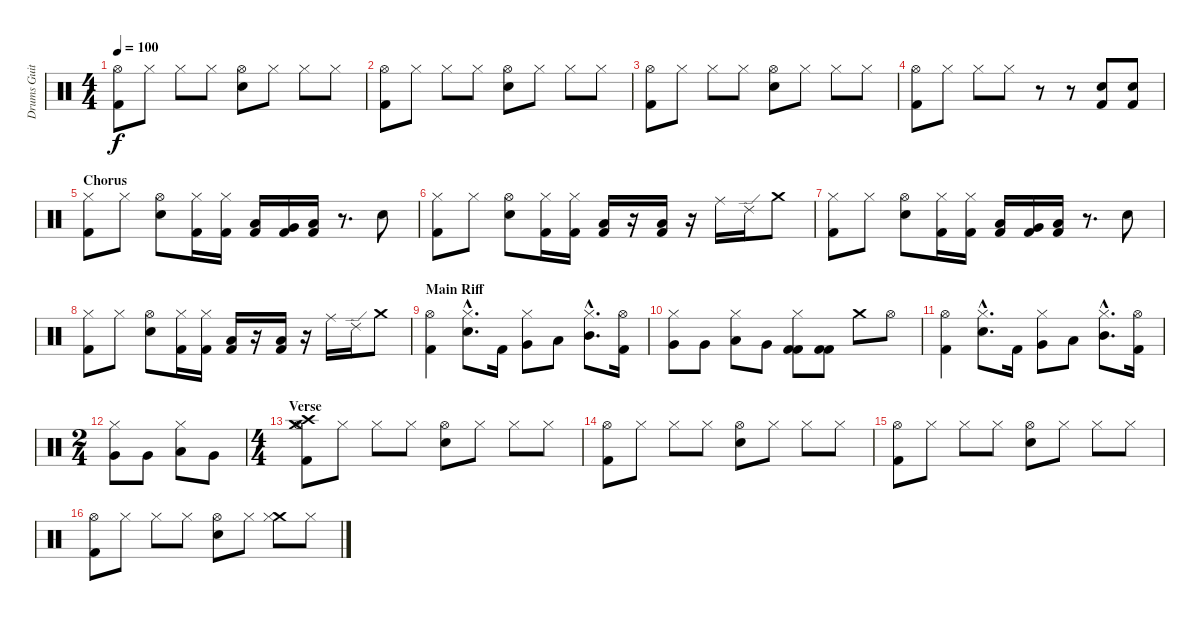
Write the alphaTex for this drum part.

\track ("Drums Guitar" "Drums Guit") {instrument percussion}
\staff {score}
\articulation defaults
\ts (4 4)
\tempo 100
\clef neutral
\ks c
("Hi-Hat (open)" "Kick (hit) 2").8{dy f} "Hi-Hat (closed)".8 "Hi-Hat (closed)".8 "Hi-Hat (closed)".8 ("Hi-Hat (open)" "Snare (hit) 2").8 "Hi-Hat (closed)".8 "Hi-Hat (closed)".8 "Hi-Hat (closed)".8 |
("Hi-Hat (open)" "Kick (hit) 2").8 "Hi-Hat (closed)".8 "Hi-Hat (closed)".8 "Hi-Hat (closed)".8 ("Hi-Hat (open)" "Snare (hit) 2").8 "Hi-Hat (closed)".8 "Hi-Hat (closed)".8 "Hi-Hat (closed)".8 |
("Hi-Hat (open)" "Kick (hit) 2").8 "Hi-Hat (closed)".8 "Hi-Hat (closed)".8 "Hi-Hat (closed)".8 ("Hi-Hat (open)" "Snare (hit) 2").8 "Hi-Hat (closed)".8 "Hi-Hat (closed)".8 "Hi-Hat (closed)".8 |
("Hi-Hat (open)" "Kick (hit) 2").8 "Hi-Hat (closed)".8 "Hi-Hat (closed)".8 "Hi-Hat (closed)".8 r.8 r.8 ("Snare (hit) 2" "Kick (hit) 2").8 ("Snare (hit) 2" "Kick (hit) 2").8 |
\section ("" "Chorus")
("Hi-Hat (closed)" "Kick (hit) 2").8 "Hi-Hat (closed)".8 ("Hi-Hat (open)" "Snare (hit) 2").8 ("Hi-Hat (closed)" "Kick (hit) 2").16 ("Hi-Hat (closed)" "Kick (hit) 2").16 ("Low Tom (hit)" "Kick (hit) 2").16 ("Very Low Tom (hit)" "Kick (hit) 2").16 ("Low Tom (hit)" "Kick (hit) 2").16 r.8{d} "Snare (hit) 2".8 |
("Hi-Hat (closed)" "Kick (hit) 2").8 "Hi-Hat (closed)".8 ("Hi-Hat (open)" "Snare (hit) 2").8 ("Hi-Hat (closed)" "Kick (hit) 2").16 ("Hi-Hat (closed)" "Kick (hit) 2").16 ("Low Tom (hit)" "Kick (hit) 2").16 r.16 ("Low Tom (hit)" "Kick (hit) 2").16 r.16 "Ride (middle)".16 "Ride (edge) 2".16 "Crash medium (hit)".8 |
("Hi-Hat (closed)" "Kick (hit) 2").8 "Hi-Hat (closed)".8 ("Hi-Hat (open)" "Snare (hit) 2").8 ("Hi-Hat (closed)" "Kick (hit) 2").16 ("Hi-Hat (closed)" "Kick (hit) 2").16 ("Low Tom (hit)" "Kick (hit) 2").16 ("Very Low Tom (hit)" "Kick (hit) 2").16 ("Low Tom (hit)" "Kick (hit) 2").16 r.8{d} "Snare (hit) 2".8 |
("Hi-Hat (closed)" "Kick (hit) 2").8 "Hi-Hat (closed)".8 ("Hi-Hat (open)" "Snare (hit) 2").8 ("Hi-Hat (closed)" "Kick (hit) 2").16 ("Hi-Hat (closed)" "Kick (hit) 2").16 ("Low Tom (hit)" "Kick (hit) 2").16 r.16 ("Low Tom (hit)" "Kick (hit) 2").16 r.16 "Ride (middle)".16 "Ride (edge) 2".16 "Crash medium (hit)".8 |
\section ("" "Main Riff")
("Hi-Hat (open)" "Kick (hit) 2").4 ("Hi-Hat (closed)"{hac} "Snare (hit) 2"{hac}).8{d} "Kick (hit) 2".16 ("Hi-Hat (closed)" "Very Low Tom (hit)").8 "Low Tom (hit)".8 ("Hi-Hat (closed)"{hac} "Mid Tom (hit)"{hac}).8{d} ("Hi-Hat (open)" "Kick (hit) 2").16 |
("Hi-Hat (closed)" "Very Low Tom (hit)").8 "Very Low Tom (hit)".8 ("Hi-Hat (closed)" "Low Tom (hit)").8 "Very Low Tom (hit)".8 ("Hi-Hat (closed)" "Kick (hit) 2" "Kick (hit) 2").8 ("Kick (hit) 2" "Kick (hit) 2").8 "Crash medium (hit)".8 "Hi-Hat (open)".8 |
("Hi-Hat (open)" "Kick (hit) 2").4 ("Hi-Hat (closed)"{hac} "Snare (hit) 2"{hac}).8{d} "Kick (hit) 2".16 ("Hi-Hat (closed)" "Very Low Tom (hit)").8 "Low Tom (hit)".8 ("Hi-Hat (closed)"{hac} "Mid Tom (hit)"{hac}).8{d} ("Hi-Hat (open)" "Kick (hit) 2").16 |
\ts (2 4)
("Hi-Hat (closed)" "Very Low Tom (hit)").8 "Very Low Tom (hit)".8 ("Hi-Hat (closed)" "Low Tom (hit)").8 "Very Low Tom (hit)".8 |
\ts (4 4)
\section ("" "Verse")
("Crash high (hit)" "Crash medium (hit)" "Hi-Hat (open)" "Kick (hit) 2").8 "Hi-Hat (closed)".8 "Hi-Hat (closed)".8 "Hi-Hat (closed)".8 ("Hi-Hat (open)" "Snare (hit) 2").8 "Hi-Hat (closed)".8 "Hi-Hat (closed)".8 "Hi-Hat (closed)".8 |
("Hi-Hat (open)" "Kick (hit) 2").8 "Hi-Hat (closed)".8 "Hi-Hat (closed)".8 "Hi-Hat (closed)".8 ("Hi-Hat (open)" "Snare (hit) 2").8 "Hi-Hat (closed)".8 "Hi-Hat (closed)".8 "Hi-Hat (closed)".8 |
("Hi-Hat (open)" "Kick (hit) 2").8 "Hi-Hat (closed)".8 "Hi-Hat (closed)".8 "Hi-Hat (closed)".8 ("Hi-Hat (open)" "Snare (hit) 2").8 "Hi-Hat (closed)".8 "Hi-Hat (closed)".8 "Hi-Hat (closed)".8 |
("Hi-Hat (open)" "Kick (hit) 2").8 "Hi-Hat (closed)".8 "Hi-Hat (closed)".8 "Hi-Hat (closed)".8 ("Hi-Hat (open)" "Snare (hit) 2").8 "Hi-Hat (closed)".8 ("Crash medium (hit)" "Hi-Hat (closed)").8 "Hi-Hat (closed)".8
